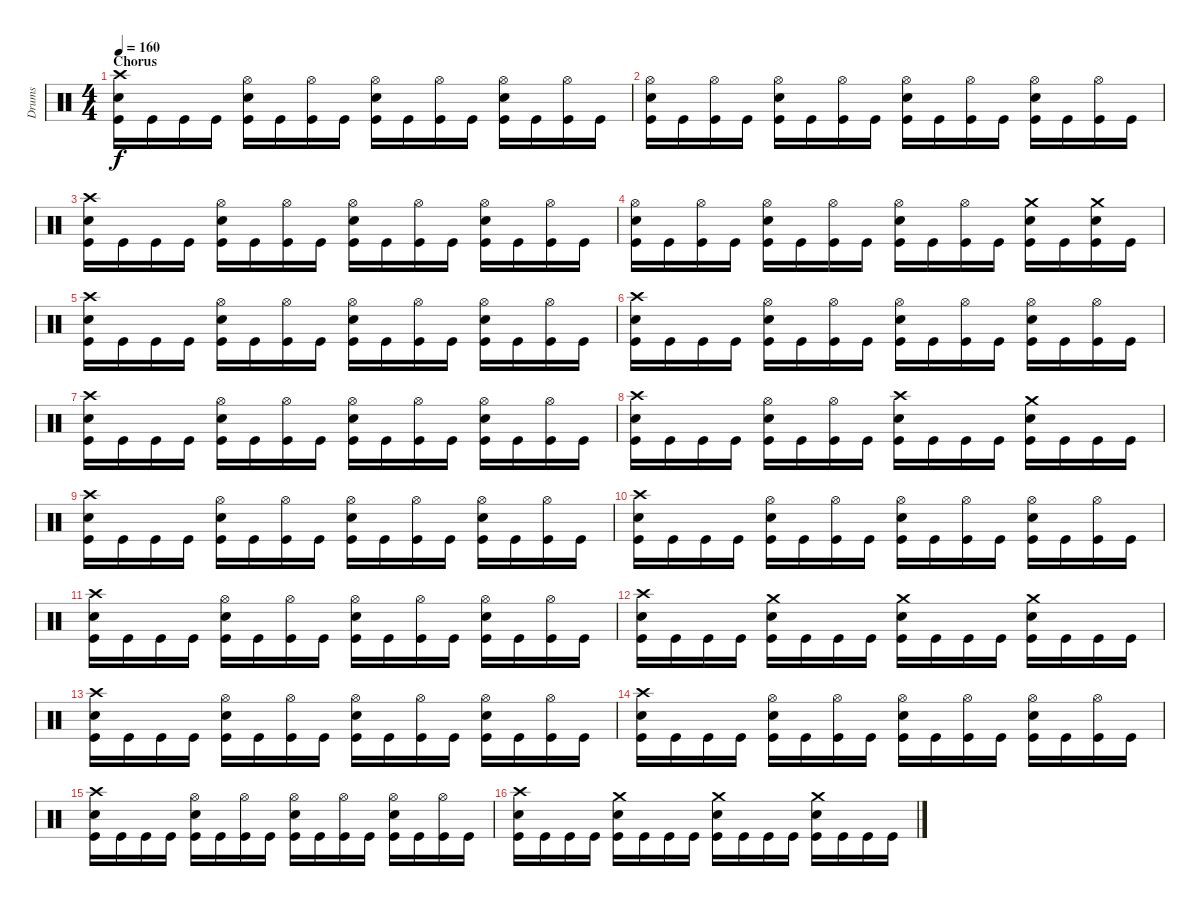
\track ("Drums" "Drums") {instrument percussion}
\staff {score}
\articulation defaults
\ts (4 4)
\section ("" "Chorus")
\tempo 160
\clef neutral
\ks c
("Crash high (hit)" "Snare (hit) 2" "Kick (hit)").16{dy f} "Kick (hit)".16 "Kick (hit)".16 "Kick (hit)".16 ("Hi-Hat (open)" "Snare (hit) 2" "Kick (hit)").16 "Kick (hit)".16 ("Hi-Hat (open)" "Kick (hit)").16 "Kick (hit)".16 ("Hi-Hat (open)" "Snare (hit) 2" "Kick (hit)").16 "Kick (hit)".16 ("Hi-Hat (open)" "Kick (hit)").16 "Kick (hit)".16 ("Hi-Hat (open)" "Snare (hit) 2" "Kick (hit)").16 "Kick (hit)".16 ("Hi-Hat (open)" "Kick (hit)").16 "Kick (hit)".16 |
("Hi-Hat (open)" "Snare (hit) 2" "Kick (hit)").16 "Kick (hit)".16 ("Hi-Hat (open)" "Kick (hit)").16 "Kick (hit)".16 ("Hi-Hat (open)" "Snare (hit) 2" "Kick (hit)").16 "Kick (hit)".16 ("Hi-Hat (open)" "Kick (hit)").16 "Kick (hit)".16 ("Hi-Hat (open)" "Snare (hit) 2" "Kick (hit)").16 "Kick (hit)".16 ("Hi-Hat (open)" "Kick (hit)").16 "Kick (hit)".16 ("Hi-Hat (open)" "Snare (hit) 2" "Kick (hit)").16 "Kick (hit)".16 ("Hi-Hat (open)" "Kick (hit)").16 "Kick (hit)".16 |
("Crash high (hit)" "Snare (hit) 2" "Kick (hit)").16 "Kick (hit)".16 "Kick (hit)".16 "Kick (hit)".16 ("Hi-Hat (open)" "Snare (hit) 2" "Kick (hit)").16 "Kick (hit)".16 ("Hi-Hat (open)" "Kick (hit)").16 "Kick (hit)".16 ("Hi-Hat (open)" "Snare (hit) 2" "Kick (hit)").16 "Kick (hit)".16 ("Hi-Hat (open)" "Kick (hit)").16 "Kick (hit)".16 ("Hi-Hat (open)" "Snare (hit) 2" "Kick (hit)").16 "Kick (hit)".16 ("Hi-Hat (open)" "Kick (hit)").16 "Kick (hit)".16 |
("Hi-Hat (open)" "Snare (hit) 2" "Kick (hit)").16 "Kick (hit)".16 ("Hi-Hat (open)" "Kick (hit)").16 "Kick (hit)".16 ("Hi-Hat (open)" "Snare (hit) 2" "Kick (hit)").16 "Kick (hit)".16 ("Hi-Hat (open)" "Kick (hit)").16 "Kick (hit)".16 ("Hi-Hat (open)" "Snare (hit) 2" "Kick (hit)").16 "Kick (hit)".16 ("Hi-Hat (open)" "Kick (hit)").16 "Kick (hit)".16 ("Crash medium (hit)" "Snare (hit) 2" "Kick (hit)").16 "Kick (hit)".16 ("Crash medium (hit)" "Snare (hit) 2" "Kick (hit)").16 "Kick (hit)".16 |
("Crash high (hit)" "Snare (hit) 2" "Kick (hit)").16 "Kick (hit)".16 "Kick (hit)".16 "Kick (hit)".16 ("Hi-Hat (open)" "Snare (hit) 2" "Kick (hit)").16 "Kick (hit)".16 ("Hi-Hat (open)" "Kick (hit)").16 "Kick (hit)".16 ("Hi-Hat (open)" "Snare (hit) 2" "Kick (hit)").16 "Kick (hit)".16 ("Hi-Hat (open)" "Kick (hit)").16 "Kick (hit)".16 ("Hi-Hat (open)" "Snare (hit) 2" "Kick (hit)").16 "Kick (hit)".16 ("Hi-Hat (open)" "Kick (hit)").16 "Kick (hit)".16 |
("Crash high (hit)" "Snare (hit) 2" "Kick (hit)").16 "Kick (hit)".16 "Kick (hit)".16 "Kick (hit)".16 ("Hi-Hat (open)" "Snare (hit) 2" "Kick (hit)").16 "Kick (hit)".16 ("Hi-Hat (open)" "Kick (hit)").16 "Kick (hit)".16 ("Hi-Hat (open)" "Snare (hit) 2" "Kick (hit)").16 "Kick (hit)".16 ("Hi-Hat (open)" "Kick (hit)").16 "Kick (hit)".16 ("Hi-Hat (open)" "Snare (hit) 2" "Kick (hit)").16 "Kick (hit)".16 ("Hi-Hat (open)" "Kick (hit)").16 "Kick (hit)".16 |
("Crash high (hit)" "Snare (hit) 2" "Kick (hit)").16 "Kick (hit)".16 "Kick (hit)".16 "Kick (hit)".16 ("Hi-Hat (open)" "Snare (hit) 2" "Kick (hit)").16 "Kick (hit)".16 ("Hi-Hat (open)" "Kick (hit)").16 "Kick (hit)".16 ("Hi-Hat (open)" "Snare (hit) 2" "Kick (hit)").16 "Kick (hit)".16 ("Hi-Hat (open)" "Kick (hit)").16 "Kick (hit)".16 ("Hi-Hat (open)" "Snare (hit) 2" "Kick (hit)").16 "Kick (hit)".16 ("Hi-Hat (open)" "Kick (hit)").16 "Kick (hit)".16 |
("Crash high (hit)" "Snare (hit) 2" "Kick (hit)").16 "Kick (hit)".16 "Kick (hit)".16 "Kick (hit)".16 ("Hi-Hat (open)" "Snare (hit) 2" "Kick (hit)").16 "Kick (hit)".16 ("Hi-Hat (open)" "Kick (hit)").16 "Kick (hit)".16 ("Crash high (hit)" "Snare (hit) 2" "Kick (hit)").16 "Kick (hit)".16 "Kick (hit)".16 "Kick (hit)".16 ("Crash medium (hit)" "Snare (hit) 2" "Kick (hit)").16 "Kick (hit)".16 "Kick (hit)".16 "Kick (hit)".16 |
("Crash high (hit)" "Snare (hit) 2" "Kick (hit)").16 "Kick (hit)".16 "Kick (hit)".16 "Kick (hit)".16 ("Hi-Hat (open)" "Snare (hit) 2" "Kick (hit)").16 "Kick (hit)".16 ("Hi-Hat (open)" "Kick (hit)").16 "Kick (hit)".16 ("Hi-Hat (open)" "Snare (hit) 2" "Kick (hit)").16 "Kick (hit)".16 ("Hi-Hat (open)" "Kick (hit)").16 "Kick (hit)".16 ("Hi-Hat (open)" "Snare (hit) 2" "Kick (hit)").16 "Kick (hit)".16 ("Hi-Hat (open)" "Kick (hit)").16 "Kick (hit)".16 |
("Crash high (hit)" "Snare (hit) 2" "Kick (hit)").16 "Kick (hit)".16 "Kick (hit)".16 "Kick (hit)".16 ("Hi-Hat (open)" "Snare (hit) 2" "Kick (hit)").16 "Kick (hit)".16 ("Hi-Hat (open)" "Kick (hit)").16 "Kick (hit)".16 ("Hi-Hat (open)" "Snare (hit) 2" "Kick (hit)").16 "Kick (hit)".16 ("Hi-Hat (open)" "Kick (hit)").16 "Kick (hit)".16 ("Hi-Hat (open)" "Snare (hit) 2" "Kick (hit)").16 "Kick (hit)".16 ("Hi-Hat (open)" "Kick (hit)").16 "Kick (hit)".16 |
("Crash high (hit)" "Snare (hit) 2" "Kick (hit)").16 "Kick (hit)".16 "Kick (hit)".16 "Kick (hit)".16 ("Hi-Hat (open)" "Snare (hit) 2" "Kick (hit)").16 "Kick (hit)".16 ("Hi-Hat (open)" "Kick (hit)").16 "Kick (hit)".16 ("Hi-Hat (open)" "Snare (hit) 2" "Kick (hit)").16 "Kick (hit)".16 ("Hi-Hat (open)" "Kick (hit)").16 "Kick (hit)".16 ("Hi-Hat (open)" "Snare (hit) 2" "Kick (hit)").16 "Kick (hit)".16 ("Hi-Hat (open)" "Kick (hit)").16 "Kick (hit)".16 |
("Crash high (hit)" "Snare (hit) 2" "Kick (hit)").16 "Kick (hit)".16 "Kick (hit)".16 "Kick (hit)".16 ("Crash medium (hit)" "Snare (hit) 2" "Kick (hit)").16 "Kick (hit)".16 "Kick (hit)".16 "Kick (hit)".16 ("Crash medium (hit)" "Snare (hit) 2" "Kick (hit)").16 "Kick (hit)".16 "Kick (hit)".16 "Kick (hit)".16 ("Crash medium (hit)" "Snare (hit) 2" "Kick (hit)").16 "Kick (hit)".16 "Kick (hit)".16 "Kick (hit)".16 |
("Crash high (hit)" "Snare (hit) 2" "Kick (hit)").16 "Kick (hit)".16 "Kick (hit)".16 "Kick (hit)".16 ("Hi-Hat (open)" "Snare (hit) 2" "Kick (hit)").16 "Kick (hit)".16 ("Hi-Hat (open)" "Kick (hit)").16 "Kick (hit)".16 ("Hi-Hat (open)" "Snare (hit) 2" "Kick (hit)").16 "Kick (hit)".16 ("Hi-Hat (open)" "Kick (hit)").16 "Kick (hit)".16 ("Hi-Hat (open)" "Snare (hit) 2" "Kick (hit)").16 "Kick (hit)".16 ("Hi-Hat (open)" "Kick (hit)").16 "Kick (hit)".16 |
("Crash high (hit)" "Snare (hit) 2" "Kick (hit)").16 "Kick (hit)".16 "Kick (hit)".16 "Kick (hit)".16 ("Hi-Hat (open)" "Snare (hit) 2" "Kick (hit)").16 "Kick (hit)".16 ("Hi-Hat (open)" "Kick (hit)").16 "Kick (hit)".16 ("Hi-Hat (open)" "Snare (hit) 2" "Kick (hit)").16 "Kick (hit)".16 ("Hi-Hat (open)" "Kick (hit)").16 "Kick (hit)".16 ("Hi-Hat (open)" "Snare (hit) 2" "Kick (hit)").16 "Kick (hit)".16 ("Hi-Hat (open)" "Kick (hit)").16 "Kick (hit)".16 |
("Crash high (hit)" "Snare (hit) 2" "Kick (hit)").16 "Kick (hit)".16 "Kick (hit)".16 "Kick (hit)".16 ("Hi-Hat (open)" "Snare (hit) 2" "Kick (hit)").16 "Kick (hit)".16 ("Hi-Hat (open)" "Kick (hit)").16 "Kick (hit)".16 ("Hi-Hat (open)" "Snare (hit) 2" "Kick (hit)").16 "Kick (hit)".16 ("Hi-Hat (open)" "Kick (hit)").16 "Kick (hit)".16 ("Hi-Hat (open)" "Snare (hit) 2" "Kick (hit)").16 "Kick (hit)".16 ("Hi-Hat (open)" "Kick (hit)").16 "Kick (hit)".16 |
("Crash high (hit)" "Snare (hit) 2" "Kick (hit)").16 "Kick (hit)".16 "Kick (hit)".16 "Kick (hit)".16 ("Crash medium (hit)" "Snare (hit) 2" "Kick (hit)").16 "Kick (hit)".16 "Kick (hit)".16 "Kick (hit)".16 ("Crash medium (hit)" "Snare (hit) 2" "Kick (hit)").16 "Kick (hit)".16 "Kick (hit)".16 "Kick (hit)".16 ("Crash medium (hit)" "Snare (hit) 2" "Kick (hit)").16 "Kick (hit)".16 "Kick (hit)".16 "Kick (hit)".16
